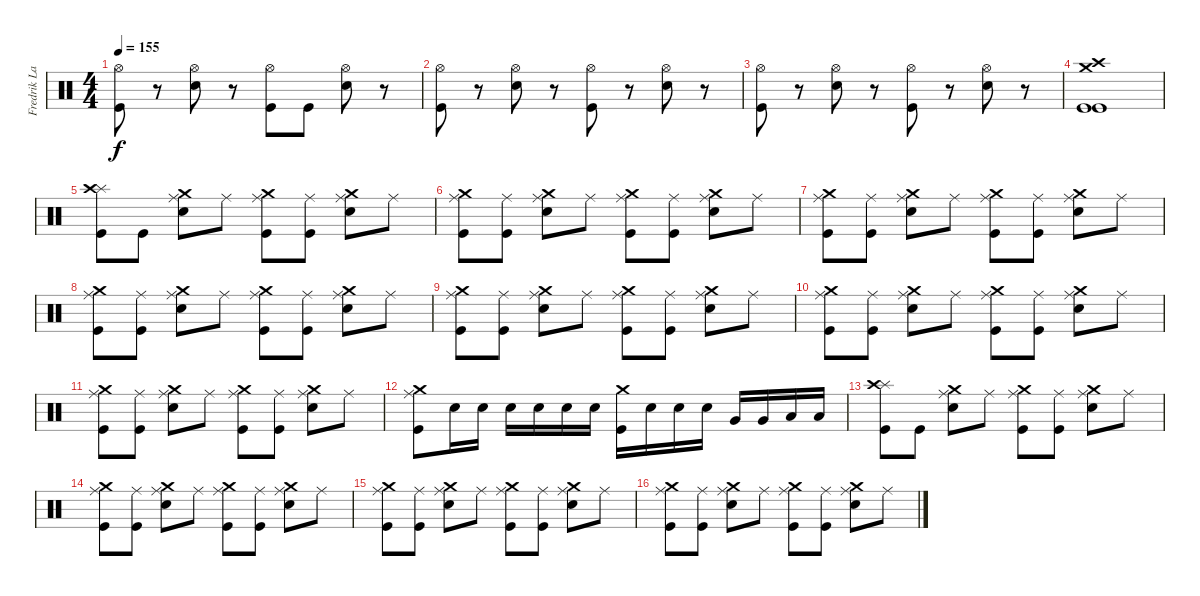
\track ("Fredrik Larzon Drums" "Fredrik La") {instrument percussion}
\staff {score}
\articulation defaults
\ts (4 4)
\tempo 155
\clef neutral
\ks c
("Hi-Hat (open)" "Kick (hit)").8{dy f} r.8 ("Hi-Hat (open)" "Electric Snare (hit)").8 r.8 ("Hi-Hat (open)" "Kick (hit)").8 "Kick (hit)".8 ("Hi-Hat (open)" "Electric Snare (hit)").8 r.8 |
("Hi-Hat (open)" "Kick (hit)").8 r.8 ("Hi-Hat (open)" "Electric Snare (hit)").8 r.8 ("Hi-Hat (open)" "Kick (hit)").8 r.8 ("Hi-Hat (open)" "Electric Snare (hit)").8 r.8 |
("Hi-Hat (open)" "Kick (hit)").8 r.8 ("Hi-Hat (open)" "Electric Snare (hit)").8 r.8 ("Hi-Hat (open)" "Kick (hit)").8 r.8 ("Hi-Hat (open)" "Electric Snare (hit)").8 r.8 |
("Crash high (hit)" "Crash medium (hit)" "Kick (hit)" "Kick (hit)").1 |
("Splash (hit)" "Crash high (hit)" "Kick (hit)").8 "Kick (hit)".8 ("Ride (middle)" "Crash medium (hit)" "Electric Snare (hit)").8 "Ride (middle)".8 ("Ride (middle)" "Crash medium (hit)" "Kick (hit)").8 ("Ride (middle)" "Kick (hit)").8 ("Ride (middle)" "Crash medium (hit)" "Electric Snare (hit)").8 "Ride (middle)".8 |
("Ride (middle)" "Crash medium (hit)" "Kick (hit)").8 ("Ride (middle)" "Kick (hit)").8 ("Ride (middle)" "Crash medium (hit)" "Electric Snare (hit)").8 "Ride (middle)".8 ("Ride (middle)" "Crash medium (hit)" "Kick (hit)").8 ("Ride (middle)" "Kick (hit)").8 ("Ride (middle)" "Crash medium (hit)" "Electric Snare (hit)").8 "Ride (middle)".8 |
("Ride (middle)" "Crash medium (hit)" "Kick (hit)").8 ("Ride (middle)" "Kick (hit)").8 ("Ride (middle)" "Crash medium (hit)" "Electric Snare (hit)").8 "Ride (middle)".8 ("Ride (middle)" "Crash medium (hit)" "Kick (hit)").8 ("Ride (middle)" "Kick (hit)").8 ("Ride (middle)" "Crash medium (hit)" "Electric Snare (hit)").8 "Ride (middle)".8 |
("Ride (middle)" "Crash medium (hit)" "Kick (hit)").8 ("Ride (middle)" "Kick (hit)").8 ("Ride (middle)" "Crash medium (hit)" "Electric Snare (hit)").8 "Ride (middle)".8 ("Ride (middle)" "Crash medium (hit)" "Kick (hit)").8 ("Ride (middle)" "Kick (hit)").8 ("Ride (middle)" "Crash medium (hit)" "Electric Snare (hit)").8 "Ride (middle)".8 |
("Ride (middle)" "Crash medium (hit)" "Kick (hit)").8 ("Ride (middle)" "Kick (hit)").8 ("Ride (middle)" "Crash medium (hit)" "Electric Snare (hit)").8 "Ride (middle)".8 ("Ride (middle)" "Crash medium (hit)" "Kick (hit)").8 ("Ride (middle)" "Kick (hit)").8 ("Ride (middle)" "Crash medium (hit)" "Electric Snare (hit)").8 "Ride (middle)".8 |
("Ride (middle)" "Crash medium (hit)" "Kick (hit)").8 ("Ride (middle)" "Kick (hit)").8 ("Ride (middle)" "Crash medium (hit)" "Electric Snare (hit)").8 "Ride (middle)".8 ("Ride (middle)" "Crash medium (hit)" "Kick (hit)").8 ("Ride (middle)" "Kick (hit)").8 ("Ride (middle)" "Crash medium (hit)" "Electric Snare (hit)").8 "Ride (middle)".8 |
("Ride (middle)" "Crash medium (hit)" "Kick (hit)").8 ("Ride (middle)" "Kick (hit)").8 ("Ride (middle)" "Crash medium (hit)" "Electric Snare (hit)").8 "Ride (middle)".8 ("Ride (middle)" "Crash medium (hit)" "Kick (hit)").8 ("Ride (middle)" "Kick (hit)").8 ("Ride (middle)" "Crash medium (hit)" "Electric Snare (hit)").8 "Ride (middle)".8 |
("Ride (middle)" "Crash medium (hit)" "Kick (hit)").8 "Electric Snare (hit)".16 "Electric Snare (hit)".16 "Electric Snare (hit)".16 "Electric Snare (hit)".16 "Electric Snare (hit)".16 "Electric Snare (hit)".16 ("Crash medium (hit)" "Kick (hit)").16 "Electric Snare (hit)".16 "Electric Snare (hit)".16 "Electric Snare (hit)".16 "Very Low Tom (hit)".16 "Very Low Tom (hit)".16 "Low Floor Tom (hit)".16 "Low Floor Tom (hit)".16 |
("Splash (hit)" "Crash high (hit)" "Kick (hit)").8 "Kick (hit)".8 ("Ride (middle)" "Crash medium (hit)" "Electric Snare (hit)").8 "Ride (middle)".8 ("Ride (middle)" "Crash medium (hit)" "Kick (hit)").8 ("Ride (middle)" "Kick (hit)").8 ("Ride (middle)" "Crash medium (hit)" "Electric Snare (hit)").8 "Ride (middle)".8 |
("Ride (middle)" "Crash medium (hit)" "Kick (hit)").8 ("Ride (middle)" "Kick (hit)").8 ("Ride (middle)" "Crash medium (hit)" "Electric Snare (hit)").8 "Ride (middle)".8 ("Ride (middle)" "Crash medium (hit)" "Kick (hit)").8 ("Ride (middle)" "Kick (hit)").8 ("Ride (middle)" "Crash medium (hit)" "Electric Snare (hit)").8 "Ride (middle)".8 |
("Ride (middle)" "Crash medium (hit)" "Kick (hit)").8 ("Ride (middle)" "Kick (hit)").8 ("Ride (middle)" "Crash medium (hit)" "Electric Snare (hit)").8 "Ride (middle)".8 ("Ride (middle)" "Crash medium (hit)" "Kick (hit)").8 ("Ride (middle)" "Kick (hit)").8 ("Ride (middle)" "Crash medium (hit)" "Electric Snare (hit)").8 "Ride (middle)".8 |
("Ride (middle)" "Crash medium (hit)" "Kick (hit)").8 ("Ride (middle)" "Kick (hit)").8 ("Ride (middle)" "Crash medium (hit)" "Electric Snare (hit)").8 "Ride (middle)".8 ("Ride (middle)" "Crash medium (hit)" "Kick (hit)").8 ("Ride (middle)" "Kick (hit)").8 ("Ride (middle)" "Crash medium (hit)" "Electric Snare (hit)").8 "Ride (middle)".8
